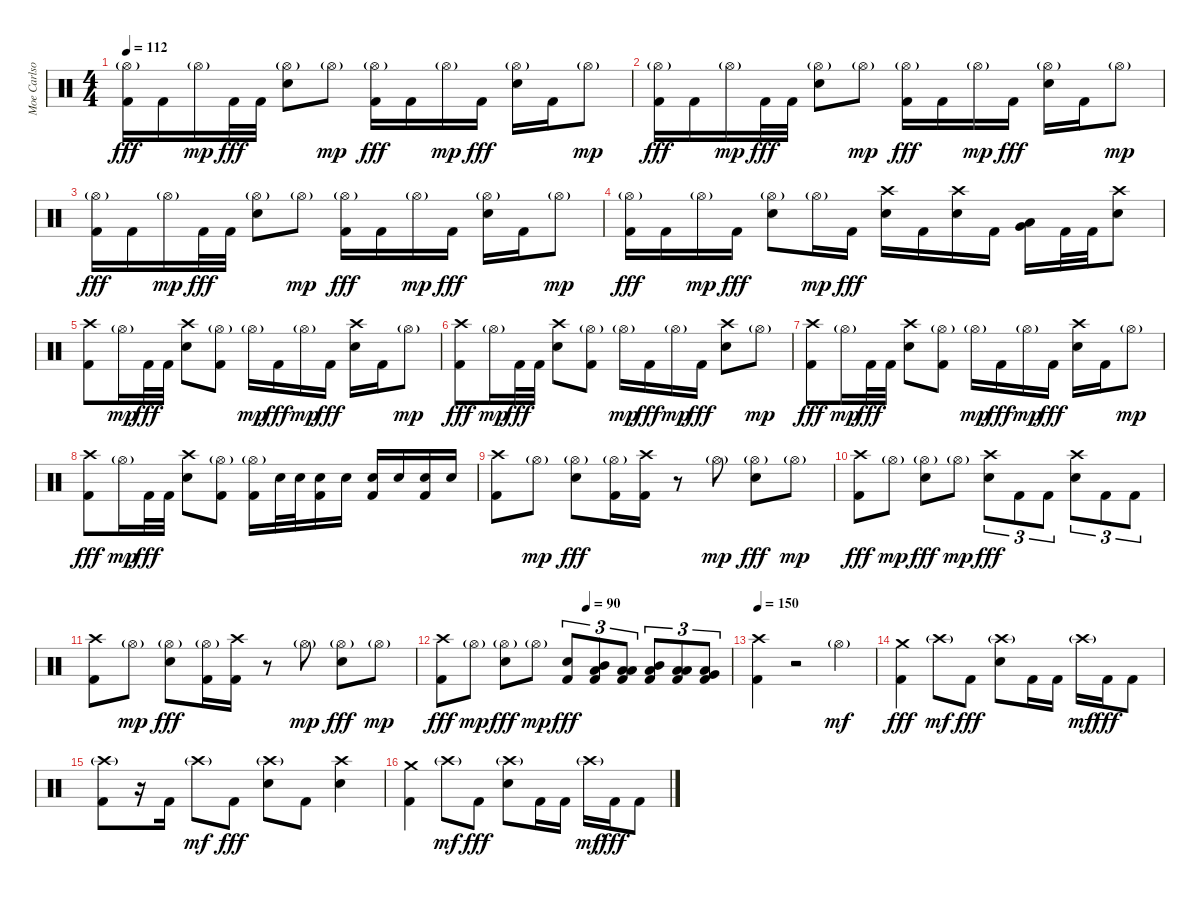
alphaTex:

\track ("Moe Carlson" "Moe Carlso") {instrument percussion}
\staff {score}
\articulation defaults
\ts (4 4)
\tempo 112
\clef neutral
\ks c
("Hi-Hat (open)"{g} "Kick (hit) 2").16{dy fff} "Kick (hit) 2".16 "Hi-Hat (open)"{g}.16{dy mp} "Kick (hit) 2".32{dy fff} "Kick (hit) 2".32 ("Hi-Hat (open)"{g} "Electric Snare (hit)").8 "Hi-Hat (open)"{g}.8{dy mp} ("Hi-Hat (open)"{g} "Kick (hit) 2").16{dy fff} "Kick (hit) 2".16 "Hi-Hat (open)"{g}.16{dy mp} "Kick (hit) 2".16{dy fff} ("Hi-Hat (open)"{g} "Electric Snare (hit)").16 "Kick (hit) 2".16 "Hi-Hat (open)"{g}.8{dy mp} |
("Hi-Hat (open)"{g} "Kick (hit) 2").16{dy fff} "Kick (hit) 2".16 "Hi-Hat (open)"{g}.16{dy mp} "Kick (hit) 2".32{dy fff} "Kick (hit) 2".32 ("Hi-Hat (open)"{g} "Electric Snare (hit)").8 "Hi-Hat (open)"{g}.8{dy mp} ("Hi-Hat (open)"{g} "Kick (hit) 2").16{dy fff} "Kick (hit) 2".16 "Hi-Hat (open)"{g}.16{dy mp} "Kick (hit) 2".16{dy fff} ("Hi-Hat (open)"{g} "Electric Snare (hit)").16 "Kick (hit) 2".16 "Hi-Hat (open)"{g}.8{dy mp} |
("Hi-Hat (open)"{g} "Kick (hit) 2").16{dy fff} "Kick (hit) 2".16 "Hi-Hat (open)"{g}.16{dy mp} "Kick (hit) 2".32{dy fff} "Kick (hit) 2".32 ("Hi-Hat (open)"{g} "Electric Snare (hit)").8 "Hi-Hat (open)"{g}.8{dy mp} ("Hi-Hat (open)"{g} "Kick (hit) 2").16{dy fff} "Kick (hit) 2".16 "Hi-Hat (open)"{g}.16{dy mp} "Kick (hit) 2".16{dy fff} ("Hi-Hat (open)"{g} "Electric Snare (hit)").16 "Kick (hit) 2".16 "Hi-Hat (open)"{g}.8{dy mp} |
("Hi-Hat (open)"{g} "Kick (hit) 2").16{dy fff} "Kick (hit) 2".16 "Hi-Hat (open)"{g}.16{dy mp} "Kick (hit) 2".16{dy fff} ("Hi-Hat (open)"{g} "Electric Snare (hit)").8 "Hi-Hat (open)"{g}.16{dy mp} "Kick (hit) 2".16{dy fff} ("Crash high (hit)" "Electric Snare (hit)").16 "Kick (hit) 2".16 ("Crash high (hit)" "Electric Snare (hit)").16 "Kick (hit) 2".16 ("Very Low Tom (hit)" "Low Floor Tom (hit)").16 "Kick (hit) 2".32 "Kick (hit) 2".32 ("Crash high (hit)" "Electric Snare (hit)").8 |
("Crash high (hit)" "Kick (hit) 2").8 "Hi-Hat (open)"{g}.16{dy mp} "Kick (hit) 2".32{dy fff} "Kick (hit) 2".32 ("Crash high (hit)" "Electric Snare (hit)").8 ("Hi-Hat (open)"{g} "Kick (hit) 2").8 "Hi-Hat (open)"{g}.16{dy mp} "Kick (hit) 2".16{dy fff} "Hi-Hat (open)"{g}.16{dy mp} "Kick (hit) 2".16{dy fff} ("Crash high (hit)" "Electric Snare (hit)").16 "Kick (hit) 2".16 "Hi-Hat (open)"{g}.8{dy mp} |
("Crash high (hit)" "Kick (hit) 2").8{dy fff} "Hi-Hat (open)"{g}.16{dy mp} "Kick (hit) 2".32{dy fff} "Kick (hit) 2".32 ("Crash high (hit)" "Electric Snare (hit)").8 ("Hi-Hat (open)"{g} "Kick (hit) 2").8 "Hi-Hat (open)"{g}.16{dy mp} "Kick (hit) 2".16{dy fff} "Hi-Hat (open)"{g}.16{dy mp} "Kick (hit) 2".16{dy fff} ("Crash high (hit)" "Electric Snare (hit)").8 "Hi-Hat (open)"{g}.8{dy mp} |
("Crash high (hit)" "Kick (hit) 2").8{dy fff} "Hi-Hat (open)"{g}.16{dy mp} "Kick (hit) 2".32{dy fff} "Kick (hit) 2".32 ("Crash high (hit)" "Electric Snare (hit)").8 ("Hi-Hat (open)"{g} "Kick (hit) 2").8 "Hi-Hat (open)"{g}.16{dy mp} "Kick (hit) 2".16{dy fff} "Hi-Hat (open)"{g}.16{dy mp} "Kick (hit) 2".16{dy fff} ("Crash high (hit)" "Electric Snare (hit)").16 "Kick (hit) 2".16 "Hi-Hat (open)"{g}.8{dy mp} |
("Crash high (hit)" "Kick (hit) 2").8{dy fff} "Hi-Hat (open)"{g}.16{dy mp} "Kick (hit) 2".32{dy fff} "Kick (hit) 2".32 ("Crash high (hit)" "Electric Snare (hit)").8 ("Hi-Hat (open)"{g} "Kick (hit) 2").8 ("Hi-Hat (open)"{g} "Kick (hit) 2").16 "Electric Snare (hit)".32 "Electric Snare (hit)".32 ("Electric Snare (hit)" "Kick (hit) 2").16 "Electric Snare (hit)".16 ("Electric Snare (hit)" "Kick (hit) 2").16 "Electric Snare (hit)".16 ("Electric Snare (hit)" "Kick (hit) 2").16 "Electric Snare (hit)".16 |
("Crash high (hit)" "Kick (hit) 2").8 "Hi-Hat (open)"{g}.8{dy mp} ("Hi-Hat (open)"{g} "Electric Snare (hit)").8{dy fff} ("Hi-Hat (open)"{g} "Kick (hit) 2").16 ("Crash high (hit)" "Kick (hit) 2").16 r.8 "Hi-Hat (open)"{g}.8{dy mp} ("Hi-Hat (open)"{g} "Electric Snare (hit)").8{dy fff} "Hi-Hat (open)"{g}.8{dy mp} |
("Crash high (hit)" "Kick (hit) 2").8{dy fff} "Hi-Hat (open)"{g}.8{dy mp} ("Hi-Hat (open)"{g} "Electric Snare (hit)").8{dy fff} "Hi-Hat (open)"{g}.8{dy mp} ("Crash high (hit)" "Electric Snare (hit)").8{tu (3 2) dy fff} "Kick (hit) 2".8{tu (3 2)} "Kick (hit) 2".8{tu (3 2)} ("Crash high (hit)" "Electric Snare (hit)").8{tu (3 2)} "Kick (hit) 2".8{tu (3 2)} "Kick (hit) 2".8{tu (3 2)} |
("Crash high (hit)" "Kick (hit) 2").8 "Hi-Hat (open)"{g}.8{dy mp} ("Hi-Hat (open)"{g} "Electric Snare (hit)").8{dy fff} ("Hi-Hat (open)"{g} "Kick (hit) 2").16 ("Crash high (hit)" "Kick (hit) 2").16 r.8 "Hi-Hat (open)"{g}.8{dy mp} ("Hi-Hat (open)"{g} "Electric Snare (hit)").8{dy fff} "Hi-Hat (open)"{g}.8{dy mp} |
\tempo (90 0.5)
("Crash high (hit)" "Kick (hit) 2").8{dy fff} "Hi-Hat (open)"{g}.8{dy mp} ("Hi-Hat (open)"{g} "Electric Snare (hit)").8{dy fff} "Hi-Hat (open)"{g}.8{dy mp} ("Electric Snare (hit)" "Kick (hit) 2").8{tu (3 2) dy fff} ("Mid Tom (hit)" "Low Floor Tom (hit)" "Kick (hit) 2").8{tu (3 2)} ("Low Tom (hit)" "Low Floor Tom (hit)" "Kick (hit) 2").8{tu (3 2)} ("Mid Tom (hit)" "Low Floor Tom (hit)" "Kick (hit) 2").8{tu (3 2)} ("Low Tom (hit)" "Low Floor Tom (hit)" "Kick (hit) 2").8{tu (3 2)} ("Very Low Tom (hit)" "Low Floor Tom (hit)" "Kick (hit) 2").8{tu (3 2)} |
\tempo 150
("Crash high (hit)" "Kick (hit) 2").4 r.2 "Hi-Hat (open)"{g}.4{dy mf} |
("Crash medium (hit)" "Kick (hit) 2").4{dy fff} "Crash high (hit)"{g}.8{dy mf} "Kick (hit) 2".8{dy fff} ("Crash high (hit)"{g} "Electric Snare (hit)").8 "Kick (hit) 2".16 "Kick (hit) 2".16 "Crash high (hit)"{g}.16{dy mf} "Kick (hit) 2".16{dy fff} "Kick (hit) 2".8 |
("Crash high (hit)"{g} "Kick (hit) 2").8 r.16 "Kick (hit) 2".16 "Crash high (hit)"{g}.8{dy mf} "Kick (hit) 2".8{dy fff} ("Crash high (hit)"{g} "Electric Snare (hit)").8 "Kick (hit) 2".8 ("Crash high (hit)" "Electric Snare (hit)").4 |
("Crash medium (hit)" "Kick (hit) 2").4 "Crash high (hit)"{g}.8{dy mf} "Kick (hit) 2".8{dy fff} ("Crash high (hit)"{g} "Electric Snare (hit)").8 "Kick (hit) 2".16 "Kick (hit) 2".16 "Crash high (hit)"{g}.16{dy mf} "Kick (hit) 2".16{dy fff} "Kick (hit) 2".8
